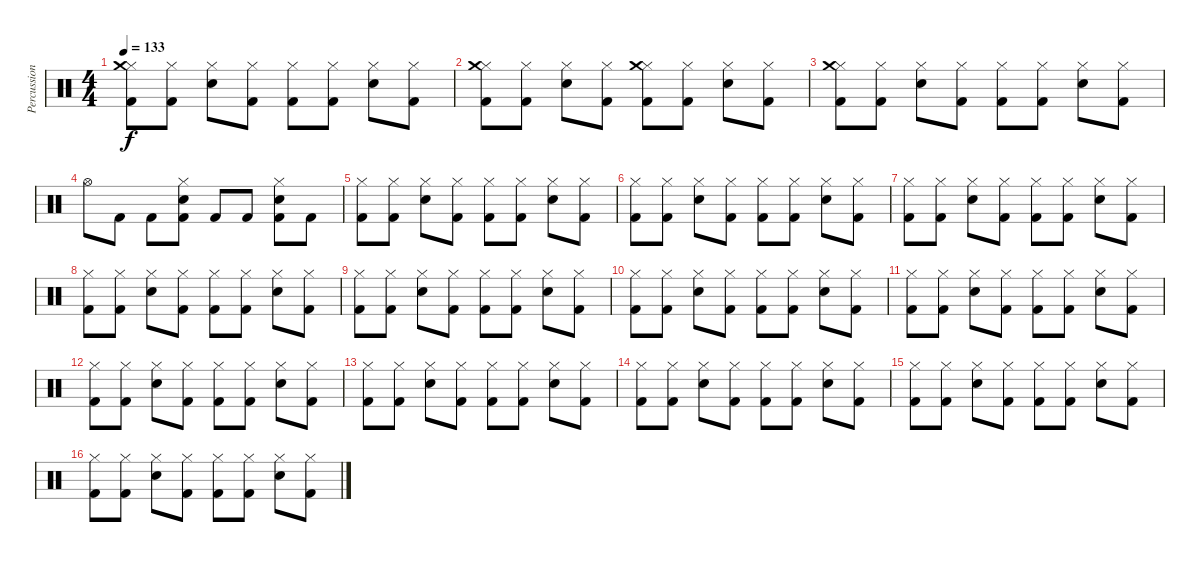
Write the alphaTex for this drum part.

\track ("Percussion" "Percussion") {instrument percussion}
\staff {score}
\articulation defaults
\ts (4 4)
\tempo 133
\clef neutral
\ks c
("Hi-Hat (closed)" "Kick (hit) 2" "Crash medium (hit)").8{dy f} ("Hi-Hat (closed)" "Kick (hit) 2").8 ("Electric Snare (hit)" "Hi-Hat (closed)").8 ("Hi-Hat (closed)" "Kick (hit) 2").8 ("Hi-Hat (closed)" "Kick (hit) 2").8 ("Hi-Hat (closed)" "Kick (hit) 2").8 ("Electric Snare (hit)" "Hi-Hat (closed)").8 ("Hi-Hat (closed)" "Kick (hit) 2").8 |
("Hi-Hat (closed)" "Kick (hit) 2" "Crash medium (hit)").8 ("Hi-Hat (closed)" "Kick (hit) 2").8 ("Electric Snare (hit)" "Hi-Hat (closed)").8 ("Hi-Hat (closed)" "Kick (hit) 2").8 ("Hi-Hat (closed)" "Kick (hit) 2" "Crash medium (hit)").8 ("Hi-Hat (closed)" "Kick (hit) 2").8 ("Electric Snare (hit)" "Hi-Hat (closed)").8 ("Hi-Hat (closed)" "Kick (hit) 2").8 |
("Hi-Hat (closed)" "Kick (hit) 2" "Crash medium (hit)").8 ("Hi-Hat (closed)" "Kick (hit) 2").8 ("Electric Snare (hit)" "Hi-Hat (closed)").8 ("Hi-Hat (closed)" "Kick (hit) 2").8 ("Hi-Hat (closed)" "Kick (hit) 2").8 ("Hi-Hat (closed)" "Kick (hit) 2").8 ("Electric Snare (hit)" "Hi-Hat (closed)").8 ("Hi-Hat (closed)" "Kick (hit) 2").8 |
"Hi-Hat (open)".8 "Kick (hit) 2".8 "Kick (hit) 2".8 ("Electric Snare (hit)" "Hi-Hat (closed)" "Kick (hit) 2").8 "Kick (hit) 2".8 "Kick (hit) 2".8 ("Electric Snare (hit)" "Hi-Hat (closed)" "Kick (hit) 2").8 "Kick (hit) 2".8 |
("Hi-Hat (closed)" "Kick (hit) 2").8 ("Hi-Hat (closed)" "Kick (hit) 2").8 ("Electric Snare (hit)" "Hi-Hat (closed)").8 ("Hi-Hat (closed)" "Kick (hit) 2").8 ("Hi-Hat (closed)" "Kick (hit) 2").8 ("Hi-Hat (closed)" "Kick (hit) 2").8 ("Electric Snare (hit)" "Hi-Hat (closed)").8 ("Hi-Hat (closed)" "Kick (hit) 2").8 |
("Hi-Hat (closed)" "Kick (hit) 2").8 ("Hi-Hat (closed)" "Kick (hit) 2").8 ("Electric Snare (hit)" "Hi-Hat (closed)").8 ("Hi-Hat (closed)" "Kick (hit) 2").8 ("Hi-Hat (closed)" "Kick (hit) 2").8 ("Hi-Hat (closed)" "Kick (hit) 2").8 ("Electric Snare (hit)" "Hi-Hat (closed)").8 ("Hi-Hat (closed)" "Kick (hit) 2").8 |
("Hi-Hat (closed)" "Kick (hit) 2").8 ("Hi-Hat (closed)" "Kick (hit) 2").8 ("Electric Snare (hit)" "Hi-Hat (closed)").8 ("Hi-Hat (closed)" "Kick (hit) 2").8 ("Hi-Hat (closed)" "Kick (hit) 2").8 ("Hi-Hat (closed)" "Kick (hit) 2").8 ("Electric Snare (hit)" "Hi-Hat (closed)").8 ("Hi-Hat (closed)" "Kick (hit) 2").8 |
("Hi-Hat (closed)" "Kick (hit) 2").8 ("Hi-Hat (closed)" "Kick (hit) 2").8 ("Electric Snare (hit)" "Hi-Hat (closed)").8 ("Hi-Hat (closed)" "Kick (hit) 2").8 ("Hi-Hat (closed)" "Kick (hit) 2").8 ("Hi-Hat (closed)" "Kick (hit) 2").8 ("Electric Snare (hit)" "Hi-Hat (closed)").8 ("Hi-Hat (closed)" "Kick (hit) 2").8 |
("Hi-Hat (closed)" "Kick (hit) 2").8 ("Hi-Hat (closed)" "Kick (hit) 2").8 ("Electric Snare (hit)" "Hi-Hat (closed)").8 ("Hi-Hat (closed)" "Kick (hit) 2").8 ("Hi-Hat (closed)" "Kick (hit) 2").8 ("Hi-Hat (closed)" "Kick (hit) 2").8 ("Electric Snare (hit)" "Hi-Hat (closed)").8 ("Hi-Hat (closed)" "Kick (hit) 2").8 |
("Hi-Hat (closed)" "Kick (hit) 2").8 ("Hi-Hat (closed)" "Kick (hit) 2").8 ("Electric Snare (hit)" "Hi-Hat (closed)").8 ("Hi-Hat (closed)" "Kick (hit) 2").8 ("Hi-Hat (closed)" "Kick (hit) 2").8 ("Hi-Hat (closed)" "Kick (hit) 2").8 ("Electric Snare (hit)" "Hi-Hat (closed)").8 ("Hi-Hat (closed)" "Kick (hit) 2").8 |
("Hi-Hat (closed)" "Kick (hit) 2").8 ("Hi-Hat (closed)" "Kick (hit) 2").8 ("Electric Snare (hit)" "Hi-Hat (closed)").8 ("Hi-Hat (closed)" "Kick (hit) 2").8 ("Hi-Hat (closed)" "Kick (hit) 2").8 ("Hi-Hat (closed)" "Kick (hit) 2").8 ("Electric Snare (hit)" "Hi-Hat (closed)").8 ("Hi-Hat (closed)" "Kick (hit) 2").8 |
("Hi-Hat (closed)" "Kick (hit) 2").8 ("Hi-Hat (closed)" "Kick (hit) 2").8 ("Electric Snare (hit)" "Hi-Hat (closed)").8 ("Hi-Hat (closed)" "Kick (hit) 2").8 ("Hi-Hat (closed)" "Kick (hit) 2").8 ("Hi-Hat (closed)" "Kick (hit) 2").8 ("Electric Snare (hit)" "Hi-Hat (closed)").8 ("Hi-Hat (closed)" "Kick (hit) 2").8 |
("Hi-Hat (closed)" "Kick (hit) 2").8 ("Hi-Hat (closed)" "Kick (hit) 2").8 ("Electric Snare (hit)" "Hi-Hat (closed)").8 ("Hi-Hat (closed)" "Kick (hit) 2").8 ("Hi-Hat (closed)" "Kick (hit) 2").8 ("Hi-Hat (closed)" "Kick (hit) 2").8 ("Electric Snare (hit)" "Hi-Hat (closed)").8 ("Hi-Hat (closed)" "Kick (hit) 2").8 |
("Hi-Hat (closed)" "Kick (hit) 2").8 ("Hi-Hat (closed)" "Kick (hit) 2").8 ("Electric Snare (hit)" "Hi-Hat (closed)").8 ("Hi-Hat (closed)" "Kick (hit) 2").8 ("Hi-Hat (closed)" "Kick (hit) 2").8 ("Hi-Hat (closed)" "Kick (hit) 2").8 ("Electric Snare (hit)" "Hi-Hat (closed)").8 ("Hi-Hat (closed)" "Kick (hit) 2").8 |
("Hi-Hat (closed)" "Kick (hit) 2").8 ("Hi-Hat (closed)" "Kick (hit) 2").8 ("Electric Snare (hit)" "Hi-Hat (closed)").8 ("Hi-Hat (closed)" "Kick (hit) 2").8 ("Hi-Hat (closed)" "Kick (hit) 2").8 ("Hi-Hat (closed)" "Kick (hit) 2").8 ("Electric Snare (hit)" "Hi-Hat (closed)").8 ("Hi-Hat (closed)" "Kick (hit) 2").8 |
("Hi-Hat (closed)" "Kick (hit) 2").8 ("Hi-Hat (closed)" "Kick (hit) 2").8 ("Electric Snare (hit)" "Hi-Hat (closed)").8 ("Hi-Hat (closed)" "Kick (hit) 2").8 ("Hi-Hat (closed)" "Kick (hit) 2").8 ("Hi-Hat (closed)" "Kick (hit) 2").8 ("Electric Snare (hit)" "Hi-Hat (closed)").8 ("Hi-Hat (closed)" "Kick (hit) 2").8
